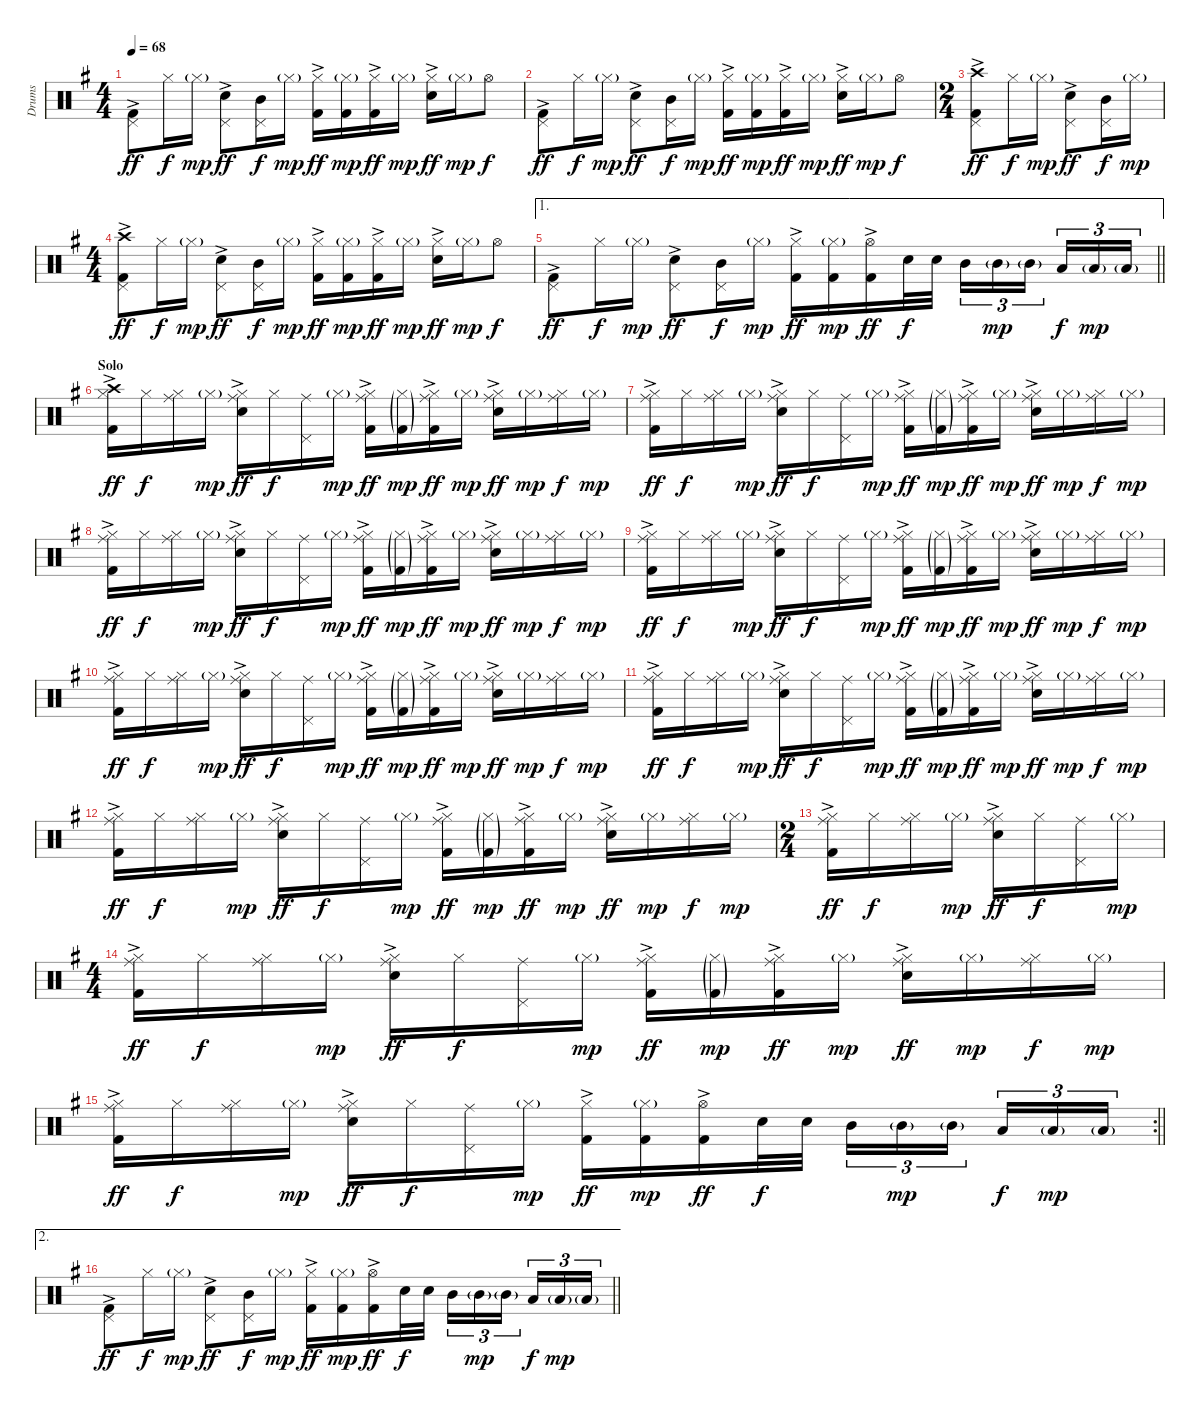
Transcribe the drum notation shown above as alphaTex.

\track ("Drums" "Drums") {instrument percussion}
\staff {score}
\articulation defaults
\ts (4 4)
\tempo 68
\clef neutral
\ks g
("Pedal Hi-Hat (hit)" "Kick (hit) 2"{ac}).8{dy ff} "Hi-Hat (closed)".16{dy f} "Hi-Hat (closed)"{g}.16{dy mp} ("Pedal Hi-Hat (hit)" "Snare (hit) 2"{ac}).8{dy ff} ("Pedal Hi-Hat (hit)" "Mid Tom (hit)").16{dy f} "Hi-Hat (closed)"{g}.16{dy mp} ("Hi-Hat (closed)" "Kick (hit) 2"{ac}).16{dy ff} ("Hi-Hat (closed)"{g} "Kick (hit) 2").16{dy mp} ("Hi-Hat (closed)" "Kick (hit) 2"{ac}).16{dy ff} "Hi-Hat (closed)"{g}.16{dy mp} ("Hi-Hat (closed)" "Snare (hit) 2"{ac}).16{dy ff} "Hi-Hat (closed)"{g}.16{dy mp} "Hi-Hat (open)".8{dy f} |
("Pedal Hi-Hat (hit)" "Kick (hit) 2"{ac}).8{dy ff} "Hi-Hat (closed)".16{dy f} "Hi-Hat (closed)"{g}.16{dy mp} ("Pedal Hi-Hat (hit)" "Snare (hit) 2"{ac}).8{dy ff} ("Pedal Hi-Hat (hit)" "Mid Tom (hit)").16{dy f} "Hi-Hat (closed)"{g}.16{dy mp} ("Hi-Hat (closed)" "Kick (hit) 2"{ac}).16{dy ff} ("Hi-Hat (closed)"{g} "Kick (hit) 2").16{dy mp} ("Hi-Hat (closed)" "Kick (hit) 2"{ac}).16{dy ff} "Hi-Hat (closed)"{g}.16{dy mp} ("Hi-Hat (closed)" "Snare (hit) 2"{ac}).16{dy ff} "Hi-Hat (closed)"{g}.16{dy mp} "Hi-Hat (open)".8{dy f} |
\ts (2 4)
("Pedal Hi-Hat (hit)" "Crash high (hit)" "Kick (hit) 2"{ac}).8{dy ff} "Hi-Hat (closed)".16{dy f} "Hi-Hat (closed)"{g}.16{dy mp} ("Pedal Hi-Hat (hit)" "Snare (hit) 2"{ac}).8{dy ff} ("Pedal Hi-Hat (hit)" "Mid Tom (hit)").16{dy f} "Hi-Hat (closed)"{g}.16{dy mp} |
\ts (4 4)
("Pedal Hi-Hat (hit)" "Crash high (hit)" "Kick (hit) 2"{ac}).8{dy ff} "Hi-Hat (closed)".16{dy f} "Hi-Hat (closed)"{g}.16{dy mp} ("Pedal Hi-Hat (hit)" "Snare (hit) 2"{ac}).8{dy ff} ("Pedal Hi-Hat (hit)" "Mid Tom (hit)").16{dy f} "Hi-Hat (closed)"{g}.16{dy mp} ("Hi-Hat (closed)" "Kick (hit) 2"{ac}).16{dy ff} ("Hi-Hat (closed)"{g} "Kick (hit) 2").16{dy mp} ("Hi-Hat (closed)" "Kick (hit) 2"{ac}).16{dy ff} "Hi-Hat (closed)"{g}.16{dy mp} ("Hi-Hat (closed)" "Snare (hit) 2"{ac}).16{dy ff} "Hi-Hat (closed)"{g}.16{dy mp} "Hi-Hat (open)".8{dy f} |
\ae 1
\barLineRight lightlight
("Pedal Hi-Hat (hit)" "Kick (hit) 2"{ac}).8{dy ff} "Hi-Hat (closed)".16{dy f} "Hi-Hat (closed)"{g}.16{dy mp} ("Pedal Hi-Hat (hit)" "Snare (hit) 2"{ac}).8{dy ff} ("Pedal Hi-Hat (hit)" "Mid Tom (hit)").16{dy f} "Hi-Hat (closed)"{g}.16{dy mp} ("Hi-Hat (closed)" "Kick (hit) 2"{ac}).16{dy ff} ("Hi-Hat (closed)"{g} "Kick (hit) 2").16{dy mp} ("Hi-Hat (open)" "Kick (hit) 2"{ac}).16{dy ff} "Snare (hit) 2".32{dy f} "Snare (hit) 2".32 "Mid Tom (hit)".16{tu (3 2)} "Mid Tom (hit)"{g}.16{tu (3 2) dy mp} "Mid Tom (hit)"{g}.16{tu (3 2) beam splitsecondary} "Low Tom (hit)".16{tu (3 2) dy f} "Low Tom (hit)"{g}.16{tu (3 2) dy mp} "Low Floor Tom (hit)"{g}.16{tu (3 2)} |
\section ("" "Solo")
("Hi-Hat (closed)" "Crash high (hit)" "Kick (hit) 2"{ac}).16{dy ff} "Hi-Hat (closed)".16{dy f} ("Hi-Hat (closed)" "Ride (middle)").16 "Hi-Hat (closed)"{g}.16{dy mp} ("Hi-Hat (closed)" "Ride (middle)" "Snare (hit) 2"{ac}).16{dy ff} "Hi-Hat (closed)".16{dy f} ("Pedal Hi-Hat (hit)" "Ride (middle)").16 "Hi-Hat (closed)"{g}.16{dy mp} ("Hi-Hat (closed)" "Ride (middle)" "Kick (hit) 2"{ac}).16{dy ff} ("Hi-Hat (closed)"{g} "Kick (hit) 2"{g}).16{dy mp} ("Hi-Hat (closed)" "Ride (middle)" "Kick (hit) 2"{ac}).16{dy ff} "Hi-Hat (closed)"{g}.16{dy mp} ("Hi-Hat (closed)" "Ride (middle)" "Snare (hit) 2"{ac}).16{dy ff} "Hi-Hat (closed)"{g}.16{dy mp} ("Hi-Hat (closed)" "Ride (middle)").16{dy f} "Hi-Hat (closed)"{g}.16{dy mp} |
("Hi-Hat (closed)" "Ride (middle)" "Kick (hit) 2"{ac}).16{dy ff} "Hi-Hat (closed)".16{dy f} ("Hi-Hat (closed)" "Ride (middle)").16 "Hi-Hat (closed)"{g}.16{dy mp} ("Hi-Hat (closed)" "Ride (middle)" "Snare (hit) 2"{ac}).16{dy ff} "Hi-Hat (closed)".16{dy f} ("Pedal Hi-Hat (hit)" "Ride (middle)").16 "Hi-Hat (closed)"{g}.16{dy mp} ("Hi-Hat (closed)" "Ride (middle)" "Kick (hit) 2"{ac}).16{dy ff} ("Hi-Hat (closed)"{g} "Kick (hit) 2"{g}).16{dy mp} ("Hi-Hat (closed)" "Ride (middle)" "Kick (hit) 2"{ac}).16{dy ff} "Hi-Hat (closed)"{g}.16{dy mp} ("Hi-Hat (closed)" "Ride (middle)" "Snare (hit) 2"{ac}).16{dy ff} "Hi-Hat (closed)"{g}.16{dy mp} ("Hi-Hat (closed)" "Ride (middle)").16{dy f} "Hi-Hat (closed)"{g}.16{dy mp} |
("Hi-Hat (closed)" "Ride (middle)" "Kick (hit) 2"{ac}).16{dy ff} "Hi-Hat (closed)".16{dy f} ("Hi-Hat (closed)" "Ride (middle)").16 "Hi-Hat (closed)"{g}.16{dy mp} ("Hi-Hat (closed)" "Ride (middle)" "Snare (hit) 2"{ac}).16{dy ff} "Hi-Hat (closed)".16{dy f} ("Pedal Hi-Hat (hit)" "Ride (middle)").16 "Hi-Hat (closed)"{g}.16{dy mp} ("Hi-Hat (closed)" "Ride (middle)" "Kick (hit) 2"{ac}).16{dy ff} ("Hi-Hat (closed)"{g} "Kick (hit) 2"{g}).16{dy mp} ("Hi-Hat (closed)" "Ride (middle)" "Kick (hit) 2"{ac}).16{dy ff} "Hi-Hat (closed)"{g}.16{dy mp} ("Hi-Hat (closed)" "Ride (middle)" "Snare (hit) 2"{ac}).16{dy ff} "Hi-Hat (closed)"{g}.16{dy mp} ("Hi-Hat (closed)" "Ride (middle)").16{dy f} "Hi-Hat (closed)"{g}.16{dy mp} |
("Hi-Hat (closed)" "Ride (middle)" "Kick (hit) 2"{ac}).16{dy ff} "Hi-Hat (closed)".16{dy f} ("Hi-Hat (closed)" "Ride (middle)").16 "Hi-Hat (closed)"{g}.16{dy mp} ("Hi-Hat (closed)" "Ride (middle)" "Snare (hit) 2"{ac}).16{dy ff} "Hi-Hat (closed)".16{dy f} ("Pedal Hi-Hat (hit)" "Ride (middle)").16 "Hi-Hat (closed)"{g}.16{dy mp} ("Hi-Hat (closed)" "Ride (middle)" "Kick (hit) 2"{ac}).16{dy ff} ("Hi-Hat (closed)"{g} "Kick (hit) 2"{g}).16{dy mp} ("Hi-Hat (closed)" "Ride (middle)" "Kick (hit) 2"{ac}).16{dy ff} "Hi-Hat (closed)"{g}.16{dy mp} ("Hi-Hat (closed)" "Ride (middle)" "Snare (hit) 2"{ac}).16{dy ff} "Hi-Hat (closed)"{g}.16{dy mp} ("Hi-Hat (closed)" "Ride (middle)").16{dy f} "Hi-Hat (closed)"{g}.16{dy mp} |
("Hi-Hat (closed)" "Ride (middle)" "Kick (hit) 2"{ac}).16{dy ff} "Hi-Hat (closed)".16{dy f} ("Hi-Hat (closed)" "Ride (middle)").16 "Hi-Hat (closed)"{g}.16{dy mp} ("Hi-Hat (closed)" "Ride (middle)" "Snare (hit) 2"{ac}).16{dy ff} "Hi-Hat (closed)".16{dy f} ("Pedal Hi-Hat (hit)" "Ride (middle)").16 "Hi-Hat (closed)"{g}.16{dy mp} ("Hi-Hat (closed)" "Ride (middle)" "Kick (hit) 2"{ac}).16{dy ff} ("Hi-Hat (closed)"{g} "Kick (hit) 2"{g}).16{dy mp} ("Hi-Hat (closed)" "Ride (middle)" "Kick (hit) 2"{ac}).16{dy ff} "Hi-Hat (closed)"{g}.16{dy mp} ("Hi-Hat (closed)" "Ride (middle)" "Snare (hit) 2"{ac}).16{dy ff} "Hi-Hat (closed)"{g}.16{dy mp} ("Hi-Hat (closed)" "Ride (middle)").16{dy f} "Hi-Hat (closed)"{g}.16{dy mp} |
("Hi-Hat (closed)" "Ride (middle)" "Kick (hit) 2"{ac}).16{dy ff} "Hi-Hat (closed)".16{dy f} ("Hi-Hat (closed)" "Ride (middle)").16 "Hi-Hat (closed)"{g}.16{dy mp} ("Hi-Hat (closed)" "Ride (middle)" "Snare (hit) 2"{ac}).16{dy ff} "Hi-Hat (closed)".16{dy f} ("Pedal Hi-Hat (hit)" "Ride (middle)").16 "Hi-Hat (closed)"{g}.16{dy mp} ("Hi-Hat (closed)" "Ride (middle)" "Kick (hit) 2"{ac}).16{dy ff} ("Hi-Hat (closed)"{g} "Kick (hit) 2"{g}).16{dy mp} ("Hi-Hat (closed)" "Ride (middle)" "Kick (hit) 2"{ac}).16{dy ff} "Hi-Hat (closed)"{g}.16{dy mp} ("Hi-Hat (closed)" "Ride (middle)" "Snare (hit) 2"{ac}).16{dy ff} "Hi-Hat (closed)"{g}.16{dy mp} ("Hi-Hat (closed)" "Ride (middle)").16{dy f} "Hi-Hat (closed)"{g}.16{dy mp} |
("Hi-Hat (closed)" "Ride (middle)" "Kick (hit) 2"{ac}).16{dy ff} "Hi-Hat (closed)".16{dy f} ("Hi-Hat (closed)" "Ride (middle)").16 "Hi-Hat (closed)"{g}.16{dy mp} ("Hi-Hat (closed)" "Ride (middle)" "Snare (hit) 2"{ac}).16{dy ff} "Hi-Hat (closed)".16{dy f} ("Pedal Hi-Hat (hit)" "Ride (middle)").16 "Hi-Hat (closed)"{g}.16{dy mp} ("Hi-Hat (closed)" "Ride (middle)" "Kick (hit) 2"{ac}).16{dy ff} ("Hi-Hat (closed)"{g} "Kick (hit) 2"{g}).16{dy mp} ("Hi-Hat (closed)" "Ride (middle)" "Kick (hit) 2"{ac}).16{dy ff} "Hi-Hat (closed)"{g}.16{dy mp} ("Hi-Hat (closed)" "Ride (middle)" "Snare (hit) 2"{ac}).16{dy ff} "Hi-Hat (closed)"{g}.16{dy mp} ("Hi-Hat (closed)" "Ride (middle)").16{dy f} "Hi-Hat (closed)"{g}.16{dy mp} |
\ts (2 4)
("Hi-Hat (closed)" "Ride (middle)" "Kick (hit) 2"{ac}).16{dy ff} "Hi-Hat (closed)".16{dy f} ("Hi-Hat (closed)" "Ride (middle)").16 "Hi-Hat (closed)"{g}.16{dy mp} ("Hi-Hat (closed)" "Ride (middle)" "Snare (hit) 2"{ac}).16{dy ff} "Hi-Hat (closed)".16{dy f} ("Pedal Hi-Hat (hit)" "Ride (middle)").16 "Hi-Hat (closed)"{g}.16{dy mp} |
\ts (4 4)
("Hi-Hat (closed)" "Ride (middle)" "Kick (hit) 2"{ac}).16{dy ff} "Hi-Hat (closed)".16{dy f} ("Hi-Hat (closed)" "Ride (middle)").16 "Hi-Hat (closed)"{g}.16{dy mp} ("Hi-Hat (closed)" "Ride (middle)" "Snare (hit) 2"{ac}).16{dy ff} "Hi-Hat (closed)".16{dy f} ("Pedal Hi-Hat (hit)" "Ride (middle)").16 "Hi-Hat (closed)"{g}.16{dy mp} ("Hi-Hat (closed)" "Ride (middle)" "Kick (hit) 2"{ac}).16{dy ff} ("Hi-Hat (closed)"{g} "Kick (hit) 2"{g}).16{dy mp} ("Hi-Hat (closed)" "Ride (middle)" "Kick (hit) 2"{ac}).16{dy ff} "Hi-Hat (closed)"{g}.16{dy mp} ("Hi-Hat (closed)" "Ride (middle)" "Snare (hit) 2"{ac}).16{dy ff} "Hi-Hat (closed)"{g}.16{dy mp} ("Hi-Hat (closed)" "Ride (middle)").16{dy f} "Hi-Hat (closed)"{g}.16{dy mp} |
\rc 2
\barLineRight lightlight
("Hi-Hat (closed)" "Ride (middle)" "Kick (hit) 2"{ac}).16{dy ff} "Hi-Hat (closed)".16{dy f} ("Hi-Hat (closed)" "Ride (middle)").16 "Hi-Hat (closed)"{g}.16{dy mp} ("Hi-Hat (closed)" "Ride (middle)" "Snare (hit) 2"{ac}).16{dy ff} "Hi-Hat (closed)".16{dy f} ("Pedal Hi-Hat (hit)" "Ride (middle)").16 "Hi-Hat (closed)"{g}.16{dy mp} ("Hi-Hat (closed)" "Kick (hit) 2"{ac}).16{dy ff} ("Hi-Hat (closed)"{g} "Kick (hit) 2").16{dy mp} ("Hi-Hat (open)" "Kick (hit) 2"{ac}).16{dy ff} "Snare (hit) 2".32{dy f} "Snare (hit) 2".32 "Mid Tom (hit)".16{tu (3 2)} "Mid Tom (hit)"{g}.16{tu (3 2) dy mp} "Mid Tom (hit)"{g}.16{tu (3 2) beam splitsecondary} "Low Tom (hit)".16{tu (3 2) dy f} "Low Tom (hit)"{g}.16{tu (3 2) dy mp} "Low Floor Tom (hit)"{g}.16{tu (3 2)} |
\ae 2
\barLineRight lightlight
("Pedal Hi-Hat (hit)" "Kick (hit) 2"{ac}).8{dy ff} "Hi-Hat (closed)".16{dy f} "Hi-Hat (closed)"{g}.16{dy mp} ("Pedal Hi-Hat (hit)" "Snare (hit) 2"{ac}).8{dy ff} ("Pedal Hi-Hat (hit)" "Mid Tom (hit)").16{dy f} "Hi-Hat (closed)"{g}.16{dy mp} ("Hi-Hat (closed)" "Kick (hit) 2"{ac}).16{dy ff} ("Hi-Hat (closed)"{g} "Kick (hit) 2").16{dy mp} ("Hi-Hat (open)" "Kick (hit) 2"{ac}).16{dy ff} "Snare (hit) 2".32{dy f} "Snare (hit) 2".32 "Mid Tom (hit)".16{tu (3 2)} "Mid Tom (hit)"{g}.16{tu (3 2) dy mp} "Mid Tom (hit)"{g}.16{tu (3 2) beam splitsecondary} "Low Tom (hit)".16{tu (3 2) dy f} "Low Tom (hit)"{g}.16{tu (3 2) dy mp} "Low Floor Tom (hit)"{g}.16{tu (3 2)}
